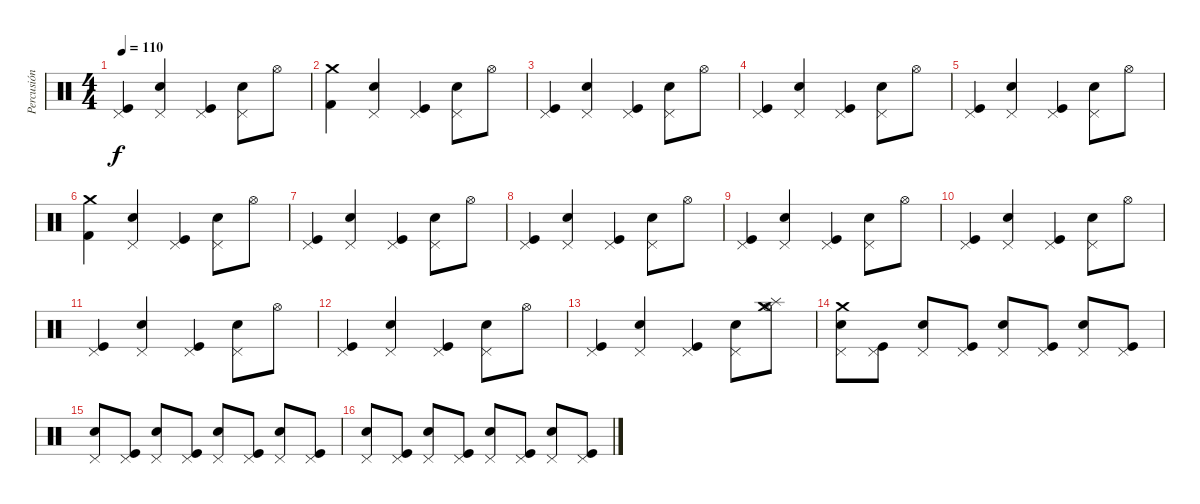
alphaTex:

\track ("Percusión" "Percusión") {instrument percussion}
\staff {score}
\articulation defaults
\ts (4 4)
\tempo 110
\clef neutral
\ks c
("Kick (hit)" "Pedal Hi-Hat (hit)").4{dy f} ("Electric Snare (hit)" "Pedal Hi-Hat (hit)").4 ("Kick (hit)" "Pedal Hi-Hat (hit)").4 ("Electric Snare (hit)" "Pedal Hi-Hat (hit)").8 "Hi-Hat (open)".8 |
("Kick (hit) 2" "Crash medium (hit)").4 ("Electric Snare (hit)" "Pedal Hi-Hat (hit)").4 ("Kick (hit)" "Pedal Hi-Hat (hit)").4 ("Electric Snare (hit)" "Pedal Hi-Hat (hit)").8 "Hi-Hat (open)".8 |
("Kick (hit)" "Pedal Hi-Hat (hit)").4 ("Electric Snare (hit)" "Pedal Hi-Hat (hit)").4 ("Kick (hit)" "Pedal Hi-Hat (hit)").4 ("Electric Snare (hit)" "Pedal Hi-Hat (hit)").8 "Hi-Hat (open)".8 |
("Kick (hit)" "Pedal Hi-Hat (hit)").4 ("Electric Snare (hit)" "Pedal Hi-Hat (hit)").4 ("Kick (hit)" "Pedal Hi-Hat (hit)").4 ("Electric Snare (hit)" "Pedal Hi-Hat (hit)").8 "Hi-Hat (open)".8 |
("Kick (hit)" "Pedal Hi-Hat (hit)").4 ("Electric Snare (hit)" "Pedal Hi-Hat (hit)").4 ("Kick (hit)" "Pedal Hi-Hat (hit)").4 ("Electric Snare (hit)" "Pedal Hi-Hat (hit)").8 "Hi-Hat (open)".8 |
("Kick (hit) 2" "Crash medium (hit)").4 ("Electric Snare (hit)" "Pedal Hi-Hat (hit)").4 ("Kick (hit)" "Pedal Hi-Hat (hit)").4 ("Electric Snare (hit)" "Pedal Hi-Hat (hit)").8 "Hi-Hat (open)".8 |
("Kick (hit)" "Pedal Hi-Hat (hit)").4 ("Electric Snare (hit)" "Pedal Hi-Hat (hit)").4 ("Kick (hit)" "Pedal Hi-Hat (hit)").4 ("Electric Snare (hit)" "Pedal Hi-Hat (hit)").8 "Hi-Hat (open)".8 |
("Kick (hit)" "Pedal Hi-Hat (hit)").4 ("Electric Snare (hit)" "Pedal Hi-Hat (hit)").4 ("Kick (hit)" "Pedal Hi-Hat (hit)").4 ("Electric Snare (hit)" "Pedal Hi-Hat (hit)").8 "Hi-Hat (open)".8 |
("Kick (hit)" "Pedal Hi-Hat (hit)").4 ("Electric Snare (hit)" "Pedal Hi-Hat (hit)").4 ("Kick (hit)" "Pedal Hi-Hat (hit)").4 ("Electric Snare (hit)" "Pedal Hi-Hat (hit)").8 "Hi-Hat (open)".8 |
("Kick (hit)" "Pedal Hi-Hat (hit)").4 ("Electric Snare (hit)" "Pedal Hi-Hat (hit)").4 ("Kick (hit)" "Pedal Hi-Hat (hit)").4 ("Electric Snare (hit)" "Pedal Hi-Hat (hit)").8 "Hi-Hat (open)".8 |
("Kick (hit)" "Pedal Hi-Hat (hit)").4 ("Electric Snare (hit)" "Pedal Hi-Hat (hit)").4 ("Kick (hit)" "Pedal Hi-Hat (hit)").4 ("Electric Snare (hit)" "Pedal Hi-Hat (hit)").8 "Hi-Hat (open)".8 |
("Kick (hit)" "Pedal Hi-Hat (hit)").4 ("Electric Snare (hit)" "Pedal Hi-Hat (hit)").4 ("Kick (hit)" "Pedal Hi-Hat (hit)").4 ("Electric Snare (hit)" "Pedal Hi-Hat (hit)").8 "Hi-Hat (open)".8 |
("Kick (hit)" "Pedal Hi-Hat (hit)").4 ("Electric Snare (hit)" "Pedal Hi-Hat (hit)").4 ("Kick (hit)" "Pedal Hi-Hat (hit)").4 ("Electric Snare (hit)" "Pedal Hi-Hat (hit)").8 ("Hi-Hat (open)" "Splash (hit)" "Crash medium (hit)").8 |
("Pedal Hi-Hat (hit)" "Electric Snare (hit)" "Crash medium (hit)").8 ("Pedal Hi-Hat (hit)" "Kick (hit)").8 ("Pedal Hi-Hat (hit)" "Electric Snare (hit)").8 ("Pedal Hi-Hat (hit)" "Kick (hit)").8 ("Pedal Hi-Hat (hit)" "Electric Snare (hit)").8 ("Pedal Hi-Hat (hit)" "Kick (hit)").8 ("Pedal Hi-Hat (hit)" "Electric Snare (hit)").8 ("Pedal Hi-Hat (hit)" "Kick (hit)").8 |
("Pedal Hi-Hat (hit)" "Electric Snare (hit)").8 ("Pedal Hi-Hat (hit)" "Kick (hit)").8 ("Pedal Hi-Hat (hit)" "Electric Snare (hit)").8 ("Pedal Hi-Hat (hit)" "Kick (hit)").8 ("Pedal Hi-Hat (hit)" "Electric Snare (hit)").8 ("Pedal Hi-Hat (hit)" "Kick (hit)").8 ("Pedal Hi-Hat (hit)" "Electric Snare (hit)").8 ("Pedal Hi-Hat (hit)" "Kick (hit)").8 |
("Pedal Hi-Hat (hit)" "Electric Snare (hit)").8 ("Pedal Hi-Hat (hit)" "Kick (hit)").8 ("Pedal Hi-Hat (hit)" "Electric Snare (hit)").8 ("Pedal Hi-Hat (hit)" "Kick (hit)").8 ("Pedal Hi-Hat (hit)" "Electric Snare (hit)").8 ("Pedal Hi-Hat (hit)" "Kick (hit)").8 ("Pedal Hi-Hat (hit)" "Electric Snare (hit)").8 ("Pedal Hi-Hat (hit)" "Kick (hit)").8
